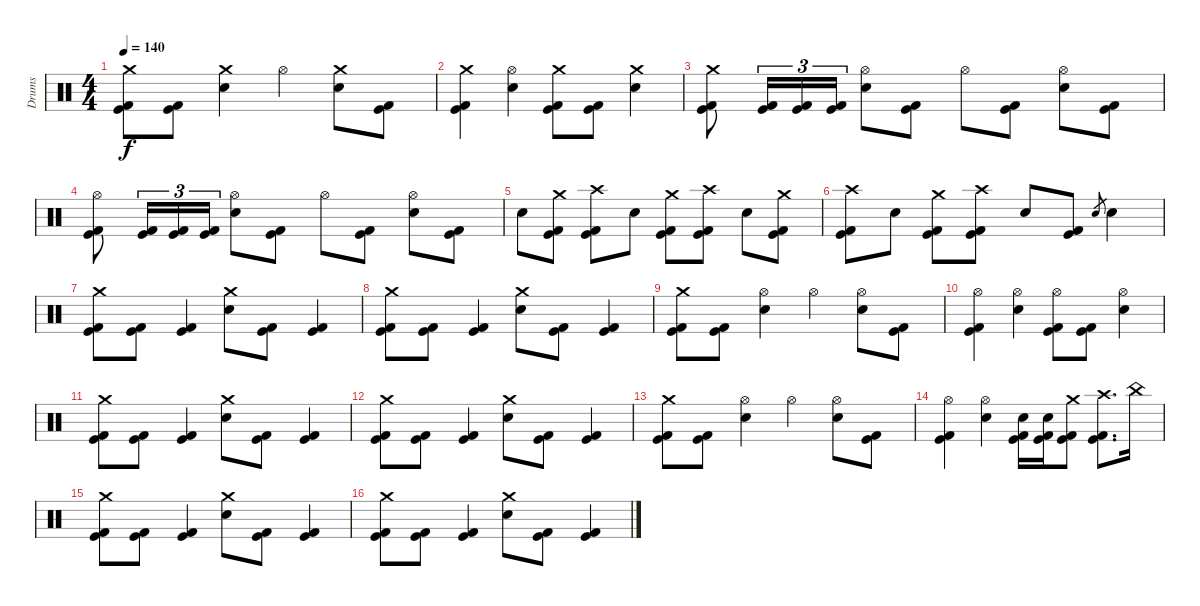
\track ("Drums" "Drums") {instrument percussion}
\staff {score}
\articulation defaults
\ts (4 4)
\tempo 140
\clef neutral
\ks c
("Crash medium (hit)" "Kick (hit)" "Kick (hit) 2").8{dy f} ("Kick (hit)" "Kick (hit) 2").8 ("Crash medium (hit)" "Electric Snare (hit)").4 "Hi-Hat (open)".4 ("Crash medium (hit)" "Electric Snare (hit)").8 ("Kick (hit)" "Kick (hit) 2").8 |
("Crash medium (hit)" "Kick (hit)" "Kick (hit) 2").4 ("Hi-Hat (open)" "Electric Snare (hit)").4 ("Crash medium (hit)" "Kick (hit)" "Kick (hit) 2").8 ("Kick (hit)" "Kick (hit) 2").8 ("Crash medium (hit)" "Electric Snare (hit)").4 |
("Crash medium (hit)" "Kick (hit)" "Kick (hit) 2").8 ("Kick (hit)" "Kick (hit) 2").16{tu (3 2)} ("Kick (hit)" "Kick (hit) 2").16{tu (3 2)} ("Kick (hit)" "Kick (hit) 2").16{tu (3 2)} ("Hi-Hat (open)" "Electric Snare (hit)").8 ("Kick (hit)" "Kick (hit) 2").8 "Hi-Hat (open)".8 ("Kick (hit)" "Kick (hit) 2").8 ("Hi-Hat (open)" "Electric Snare (hit)").8 ("Kick (hit)" "Kick (hit) 2").8 |
("Hi-Hat (open)" "Kick (hit)" "Kick (hit) 2").8 ("Kick (hit)" "Kick (hit) 2").16{tu (3 2)} ("Kick (hit)" "Kick (hit) 2").16{tu (3 2)} ("Kick (hit)" "Kick (hit) 2").16{tu (3 2)} ("Hi-Hat (open)" "Electric Snare (hit)").8 ("Kick (hit)" "Kick (hit) 2").8 "Hi-Hat (open)".8 ("Kick (hit)" "Kick (hit) 2").8 ("Hi-Hat (open)" "Electric Snare (hit)").8 ("Kick (hit)" "Kick (hit) 2").8 |
"Electric Snare (hit)".8 ("Crash medium (hit)" "Kick (hit)" "Kick (hit) 2").8 ("Crash high (hit)" "Kick (hit)" "Kick (hit) 2").8 "Electric Snare (hit)".8 ("Crash medium (hit)" "Kick (hit)" "Kick (hit) 2").8 ("Crash high (hit)" "Kick (hit)" "Kick (hit) 2").8 "Electric Snare (hit)".8 ("Crash medium (hit)" "Kick (hit)" "Kick (hit) 2").8 |
("Crash high (hit)" "Kick (hit)" "Kick (hit) 2").8 "Electric Snare (hit)".8 ("Crash medium (hit)" "Kick (hit)" "Kick (hit) 2").8 ("Crash high (hit)" "Kick (hit)" "Kick (hit) 2").8 "Electric Snare (hit)".8 ("Kick (hit)" "Kick (hit) 2").8 "Electric Snare (hit)".8{gr} "Electric Snare (hit)".4 |
("Crash medium (hit)" "Kick (hit)" "Kick (hit) 2").8 ("Kick (hit)" "Kick (hit) 2").8 ("Kick (hit)" "Kick (hit) 2").4 ("Crash medium (hit)" "Electric Snare (hit)").8 ("Kick (hit)" "Kick (hit) 2").8 ("Kick (hit)" "Kick (hit) 2").4 |
("Crash medium (hit)" "Kick (hit)" "Kick (hit) 2").8 ("Kick (hit)" "Kick (hit) 2").8 ("Kick (hit)" "Kick (hit) 2").4 ("Crash medium (hit)" "Electric Snare (hit)").8 ("Kick (hit)" "Kick (hit) 2").8 ("Kick (hit)" "Kick (hit) 2").4 |
("Crash medium (hit)" "Kick (hit)" "Kick (hit) 2").8 ("Kick (hit)" "Kick (hit) 2").8 ("Hi-Hat (open)" "Electric Snare (hit)").4 "Hi-Hat (open)".4 ("Hi-Hat (open)" "Electric Snare (hit)").8 ("Kick (hit)" "Kick (hit) 2").8 |
("Hi-Hat (open)" "Kick (hit)" "Kick (hit) 2").4 ("Hi-Hat (open)" "Electric Snare (hit)").4 ("Hi-Hat (open)" "Kick (hit)" "Kick (hit) 2").8 ("Kick (hit)" "Kick (hit) 2").8 ("Hi-Hat (open)" "Electric Snare (hit)").4 |
("Crash medium (hit)" "Kick (hit)" "Kick (hit) 2").8 ("Kick (hit)" "Kick (hit) 2").8 ("Kick (hit)" "Kick (hit) 2").4 ("Crash medium (hit)" "Electric Snare (hit)").8 ("Kick (hit)" "Kick (hit) 2").8 ("Kick (hit)" "Kick (hit) 2").4 |
("Crash medium (hit)" "Kick (hit)" "Kick (hit) 2").8 ("Kick (hit)" "Kick (hit) 2").8 ("Kick (hit)" "Kick (hit) 2").4 ("Crash medium (hit)" "Electric Snare (hit)").8 ("Kick (hit)" "Kick (hit) 2").8 ("Kick (hit)" "Kick (hit) 2").4 |
("Crash medium (hit)" "Kick (hit)" "Kick (hit) 2").8 ("Kick (hit)" "Kick (hit) 2").8 ("Hi-Hat (open)" "Electric Snare (hit)").4 "Hi-Hat (open)".4 ("Hi-Hat (open)" "Electric Snare (hit)").8 ("Kick (hit)" "Kick (hit) 2").8 |
("Hi-Hat (open)" "Kick (hit)" "Kick (hit) 2").4 ("Hi-Hat (open)" "Electric Snare (hit)").4 ("Electric Snare (hit)" "Kick (hit)" "Kick (hit) 2").16 ("Electric Snare (hit)" "Kick (hit)" "Kick (hit) 2").16 ("Crash medium (hit)" "Kick (hit)" "Kick (hit) 2").8 ("Crash high (hit)" "Kick (hit)" "Kick (hit) 2").8{d} "China (hit)".16 |
("Crash medium (hit)" "Kick (hit)" "Kick (hit) 2").8 ("Kick (hit)" "Kick (hit) 2").8 ("Kick (hit)" "Kick (hit) 2").4 ("Crash medium (hit)" "Electric Snare (hit)").8 ("Kick (hit)" "Kick (hit) 2").8 ("Kick (hit)" "Kick (hit) 2").4 |
("Crash medium (hit)" "Kick (hit)" "Kick (hit) 2").8 ("Kick (hit)" "Kick (hit) 2").8 ("Kick (hit)" "Kick (hit) 2").4 ("Crash medium (hit)" "Electric Snare (hit)").8 ("Kick (hit)" "Kick (hit) 2").8 ("Kick (hit)" "Kick (hit) 2").4
